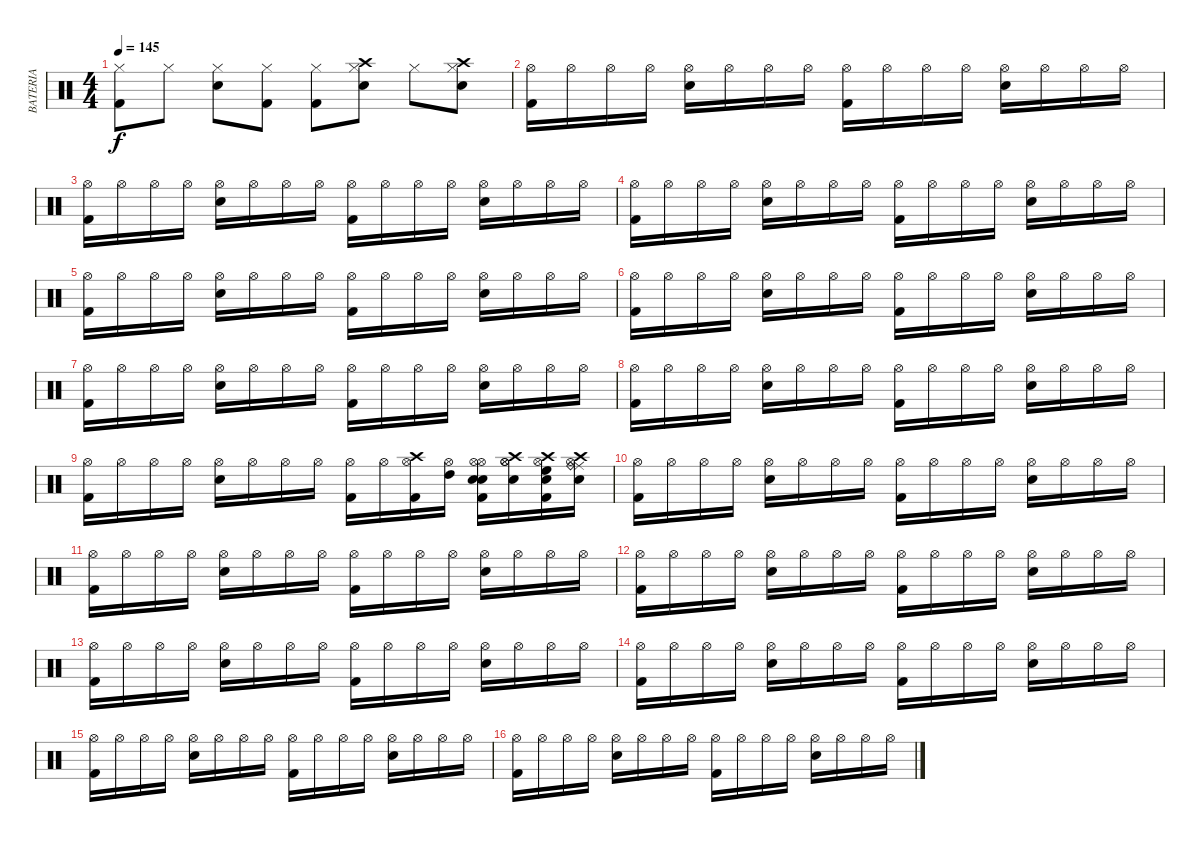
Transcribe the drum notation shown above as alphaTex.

\track ("BATERIA" "BATERIA") {instrument percussion}
\staff {score}
\articulation defaults
\ts (4 4)
\tempo 145
\clef neutral
\ks c
("Kick (hit) 2" "Hi-Hat (closed)").8{dy f} "Hi-Hat (closed)".8 ("Snare (hit) 2" "Hi-Hat (closed)").8 ("Kick (hit) 2" "Hi-Hat (closed)").8 ("Kick (hit) 2" "Hi-Hat (closed)").8 ("Snare (hit) 2" "Hi-Hat (closed)" "Crash high (hit)").8 "Hi-Hat (closed)".8 ("Snare (hit) 2" "Hi-Hat (closed)" "Crash high (hit)").8 |
("Hi-Hat (open)" "Kick (hit) 2").16 "Hi-Hat (open)".16 "Hi-Hat (open)".16 "Hi-Hat (open)".16 ("Hi-Hat (open)" "Snare (hit) 2").16 "Hi-Hat (open)".16 "Hi-Hat (open)".16 "Hi-Hat (open)".16 ("Hi-Hat (open)" "Kick (hit) 2").16 "Hi-Hat (open)".16 "Hi-Hat (open)".16 "Hi-Hat (open)".16 ("Hi-Hat (open)" "Snare (hit) 2").16 "Hi-Hat (open)".16 "Hi-Hat (open)".16 "Hi-Hat (open)".16 |
("Hi-Hat (open)" "Kick (hit) 2").16 "Hi-Hat (open)".16 "Hi-Hat (open)".16 "Hi-Hat (open)".16 ("Hi-Hat (open)" "Snare (hit) 2").16 "Hi-Hat (open)".16 "Hi-Hat (open)".16 "Hi-Hat (open)".16 ("Hi-Hat (open)" "Kick (hit) 2").16 "Hi-Hat (open)".16 "Hi-Hat (open)".16 "Hi-Hat (open)".16 ("Hi-Hat (open)" "Snare (hit) 2").16 "Hi-Hat (open)".16 "Hi-Hat (open)".16 "Hi-Hat (open)".16 |
("Hi-Hat (open)" "Kick (hit) 2").16 "Hi-Hat (open)".16 "Hi-Hat (open)".16 "Hi-Hat (open)".16 ("Hi-Hat (open)" "Snare (hit) 2").16 "Hi-Hat (open)".16 "Hi-Hat (open)".16 "Hi-Hat (open)".16 ("Hi-Hat (open)" "Kick (hit) 2").16 "Hi-Hat (open)".16 "Hi-Hat (open)".16 "Hi-Hat (open)".16 ("Hi-Hat (open)" "Snare (hit) 2").16 "Hi-Hat (open)".16 "Hi-Hat (open)".16 "Hi-Hat (open)".16 |
("Hi-Hat (open)" "Kick (hit) 2").16 "Hi-Hat (open)".16 "Hi-Hat (open)".16 "Hi-Hat (open)".16 ("Hi-Hat (open)" "Snare (hit) 2").16 "Hi-Hat (open)".16 "Hi-Hat (open)".16 "Hi-Hat (open)".16 ("Hi-Hat (open)" "Kick (hit) 2").16 "Hi-Hat (open)".16 "Hi-Hat (open)".16 "Hi-Hat (open)".16 ("Hi-Hat (open)" "Snare (hit) 2").16 "Hi-Hat (open)".16 "Hi-Hat (open)".16 "Hi-Hat (open)".16 |
("Hi-Hat (open)" "Kick (hit) 2").16 "Hi-Hat (open)".16 "Hi-Hat (open)".16 "Hi-Hat (open)".16 ("Hi-Hat (open)" "Snare (hit) 2").16 "Hi-Hat (open)".16 "Hi-Hat (open)".16 "Hi-Hat (open)".16 ("Hi-Hat (open)" "Kick (hit) 2").16 "Hi-Hat (open)".16 "Hi-Hat (open)".16 "Hi-Hat (open)".16 ("Hi-Hat (open)" "Snare (hit) 2").16 "Hi-Hat (open)".16 "Hi-Hat (open)".16 "Hi-Hat (open)".16 |
("Hi-Hat (open)" "Kick (hit) 2").16 "Hi-Hat (open)".16 "Hi-Hat (open)".16 "Hi-Hat (open)".16 ("Hi-Hat (open)" "Snare (hit) 2").16 "Hi-Hat (open)".16 "Hi-Hat (open)".16 "Hi-Hat (open)".16 ("Hi-Hat (open)" "Kick (hit) 2").16 "Hi-Hat (open)".16 "Hi-Hat (open)".16 "Hi-Hat (open)".16 ("Hi-Hat (open)" "Snare (hit) 2").16 "Hi-Hat (open)".16 "Hi-Hat (open)".16 "Hi-Hat (open)".16 |
("Hi-Hat (open)" "Kick (hit) 2").16 "Hi-Hat (open)".16 "Hi-Hat (open)".16 "Hi-Hat (open)".16 ("Hi-Hat (open)" "Snare (hit) 2").16 "Hi-Hat (open)".16 "Hi-Hat (open)".16 "Hi-Hat (open)".16 ("Hi-Hat (open)" "Kick (hit) 2").16 "Hi-Hat (open)".16 "Hi-Hat (open)".16 "Hi-Hat (open)".16 ("Hi-Hat (open)" "Snare (hit) 2").16 "Hi-Hat (open)".16 "Hi-Hat (open)".16 "Hi-Hat (open)".16 |
("Hi-Hat (open)" "Kick (hit) 2").16 "Hi-Hat (open)".16 "Hi-Hat (open)".16 "Hi-Hat (open)".16 ("Hi-Hat (open)" "Snare (hit) 2").16 "Hi-Hat (open)".16 "Hi-Hat (open)".16 "Hi-Hat (open)".16 ("Hi-Hat (open)" "Kick (hit) 2").16 "Hi-Hat (open)".16 ("Hi-Hat (open)" "Kick (hit) 2" "Crash high (hit)").16 ("Hi-Hat (open)" "High Tom (hit)").16 ("Hi-Hat (open)" "Kick (hit) 2" "Snare (hit) 2" "Hi-Hat (open)" "Snare (hit) 2").16 ("Hi-Hat (open)" "Crash high (hit)" "Hi-Hat (open)" "Snare (hit) 2").16 ("Hi-Hat (open)" "Kick (hit) 2" "Crash high (hit)" "High Floor Tom (hit)" "Snare (hit) 2").16 ("Hi-Hat (open)" "Crash high (hit)" "Ride (middle)" "Ride (bell)" "Snare (hit) 2").16 |
("Hi-Hat (open)" "Kick (hit) 2").16 "Hi-Hat (open)".16 "Hi-Hat (open)".16 "Hi-Hat (open)".16 ("Hi-Hat (open)" "Snare (hit) 2").16 "Hi-Hat (open)".16 "Hi-Hat (open)".16 "Hi-Hat (open)".16 ("Hi-Hat (open)" "Kick (hit) 2").16 "Hi-Hat (open)".16 "Hi-Hat (open)".16 "Hi-Hat (open)".16 ("Hi-Hat (open)" "Snare (hit) 2").16 "Hi-Hat (open)".16 "Hi-Hat (open)".16 "Hi-Hat (open)".16 |
("Hi-Hat (open)" "Kick (hit) 2").16 "Hi-Hat (open)".16 "Hi-Hat (open)".16 "Hi-Hat (open)".16 ("Hi-Hat (open)" "Snare (hit) 2").16 "Hi-Hat (open)".16 "Hi-Hat (open)".16 "Hi-Hat (open)".16 ("Hi-Hat (open)" "Kick (hit) 2").16 "Hi-Hat (open)".16 "Hi-Hat (open)".16 "Hi-Hat (open)".16 ("Hi-Hat (open)" "Snare (hit) 2").16 "Hi-Hat (open)".16 "Hi-Hat (open)".16 "Hi-Hat (open)".16 |
("Hi-Hat (open)" "Kick (hit) 2").16 "Hi-Hat (open)".16 "Hi-Hat (open)".16 "Hi-Hat (open)".16 ("Hi-Hat (open)" "Snare (hit) 2").16 "Hi-Hat (open)".16 "Hi-Hat (open)".16 "Hi-Hat (open)".16 ("Hi-Hat (open)" "Kick (hit) 2").16 "Hi-Hat (open)".16 "Hi-Hat (open)".16 "Hi-Hat (open)".16 ("Hi-Hat (open)" "Snare (hit) 2").16 "Hi-Hat (open)".16 "Hi-Hat (open)".16 "Hi-Hat (open)".16 |
("Hi-Hat (open)" "Kick (hit) 2").16 "Hi-Hat (open)".16 "Hi-Hat (open)".16 "Hi-Hat (open)".16 ("Hi-Hat (open)" "Snare (hit) 2").16 "Hi-Hat (open)".16 "Hi-Hat (open)".16 "Hi-Hat (open)".16 ("Hi-Hat (open)" "Kick (hit) 2").16 "Hi-Hat (open)".16 "Hi-Hat (open)".16 "Hi-Hat (open)".16 ("Hi-Hat (open)" "Snare (hit) 2").16 "Hi-Hat (open)".16 "Hi-Hat (open)".16 "Hi-Hat (open)".16 |
("Hi-Hat (open)" "Kick (hit) 2").16 "Hi-Hat (open)".16 "Hi-Hat (open)".16 "Hi-Hat (open)".16 ("Hi-Hat (open)" "Snare (hit) 2").16 "Hi-Hat (open)".16 "Hi-Hat (open)".16 "Hi-Hat (open)".16 ("Hi-Hat (open)" "Kick (hit) 2").16 "Hi-Hat (open)".16 "Hi-Hat (open)".16 "Hi-Hat (open)".16 ("Hi-Hat (open)" "Snare (hit) 2").16 "Hi-Hat (open)".16 "Hi-Hat (open)".16 "Hi-Hat (open)".16 |
("Hi-Hat (open)" "Kick (hit) 2").16 "Hi-Hat (open)".16 "Hi-Hat (open)".16 "Hi-Hat (open)".16 ("Hi-Hat (open)" "Snare (hit) 2").16 "Hi-Hat (open)".16 "Hi-Hat (open)".16 "Hi-Hat (open)".16 ("Hi-Hat (open)" "Kick (hit) 2").16 "Hi-Hat (open)".16 "Hi-Hat (open)".16 "Hi-Hat (open)".16 ("Hi-Hat (open)" "Snare (hit) 2").16 "Hi-Hat (open)".16 "Hi-Hat (open)".16 "Hi-Hat (open)".16 |
("Hi-Hat (open)" "Kick (hit) 2").16 "Hi-Hat (open)".16 "Hi-Hat (open)".16 "Hi-Hat (open)".16 ("Hi-Hat (open)" "Snare (hit) 2").16 "Hi-Hat (open)".16 "Hi-Hat (open)".16 "Hi-Hat (open)".16 ("Hi-Hat (open)" "Kick (hit) 2").16 "Hi-Hat (open)".16 "Hi-Hat (open)".16 "Hi-Hat (open)".16 ("Hi-Hat (open)" "Snare (hit) 2").16 "Hi-Hat (open)".16 "Hi-Hat (open)".16 "Hi-Hat (open)".16
